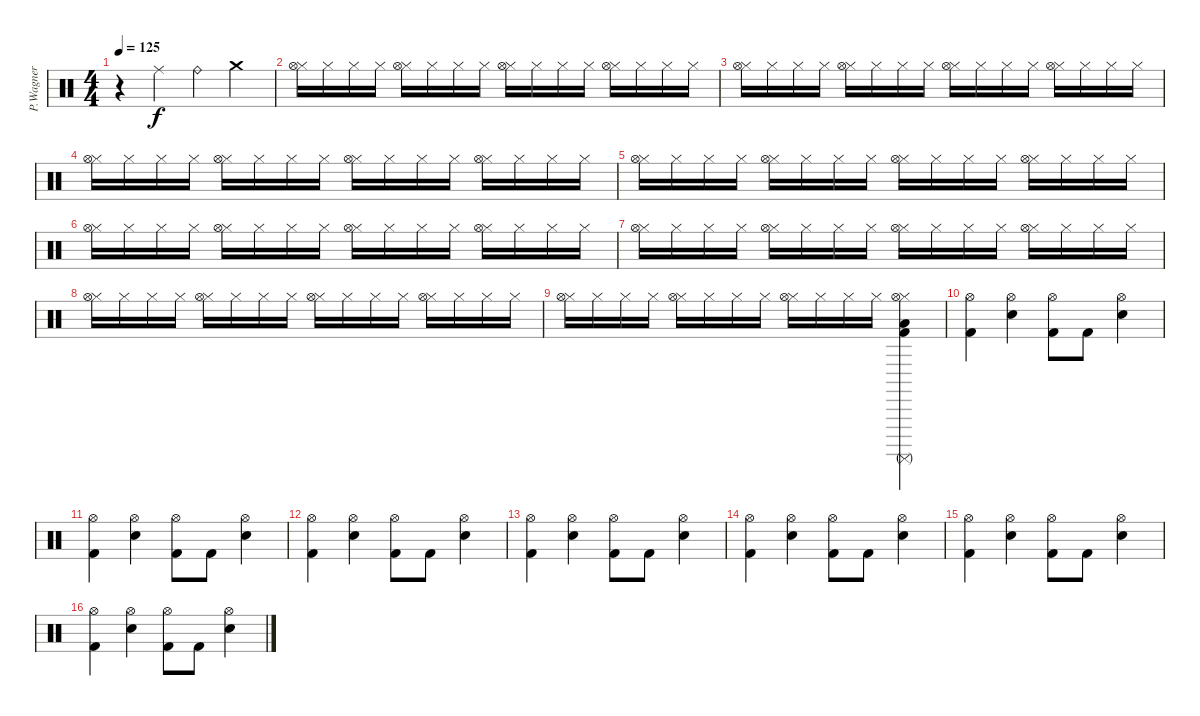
\track ("P.Wagner" "P.Wagner") {instrument percussion}
\staff {score}
\articulation defaults
\ts (4 4)
\tempo 125
\clef neutral
\ks c
r.4{dy f} "Ride (middle)".4 "Ride (bell)".4 "Crash medium (hit)".4 |
("Hi-Hat (closed)" "Hi-Hat (open)").16 "Hi-Hat (closed)".16 "Hi-Hat (closed)".16 "Hi-Hat (closed)".16 ("Hi-Hat (closed)" "Hi-Hat (open)").16 "Hi-Hat (closed)".16 "Hi-Hat (closed)".16 "Hi-Hat (closed)".16 ("Hi-Hat (closed)" "Hi-Hat (open)").16 "Hi-Hat (closed)".16 "Hi-Hat (closed)".16 "Hi-Hat (closed)".16 ("Hi-Hat (closed)" "Hi-Hat (open)").16 "Hi-Hat (closed)".16 "Hi-Hat (closed)".16 "Hi-Hat (closed)".16 |
("Hi-Hat (closed)" "Hi-Hat (open)").16 "Hi-Hat (closed)".16 "Hi-Hat (closed)".16 "Hi-Hat (closed)".16 ("Hi-Hat (closed)" "Hi-Hat (open)").16 "Hi-Hat (closed)".16 "Hi-Hat (closed)".16 "Hi-Hat (closed)".16 ("Hi-Hat (closed)" "Hi-Hat (open)").16 "Hi-Hat (closed)".16 "Hi-Hat (closed)".16 "Hi-Hat (closed)".16 ("Hi-Hat (closed)" "Hi-Hat (open)").16 "Hi-Hat (closed)".16 "Hi-Hat (closed)".16 "Hi-Hat (closed)".16 |
("Hi-Hat (closed)" "Hi-Hat (open)").16 "Hi-Hat (closed)".16 "Hi-Hat (closed)".16 "Hi-Hat (closed)".16 ("Hi-Hat (closed)" "Hi-Hat (open)").16 "Hi-Hat (closed)".16 "Hi-Hat (closed)".16 "Hi-Hat (closed)".16 ("Hi-Hat (closed)" "Hi-Hat (open)").16 "Hi-Hat (closed)".16 "Hi-Hat (closed)".16 "Hi-Hat (closed)".16 ("Hi-Hat (closed)" "Hi-Hat (open)").16 "Hi-Hat (closed)".16 "Hi-Hat (closed)".16 "Hi-Hat (closed)".16 |
("Hi-Hat (closed)" "Hi-Hat (open)").16 "Hi-Hat (closed)".16 "Hi-Hat (closed)".16 "Hi-Hat (closed)".16 ("Hi-Hat (closed)" "Hi-Hat (open)").16 "Hi-Hat (closed)".16 "Hi-Hat (closed)".16 "Hi-Hat (closed)".16 ("Hi-Hat (closed)" "Hi-Hat (open)").16 "Hi-Hat (closed)".16 "Hi-Hat (closed)".16 "Hi-Hat (closed)".16 ("Hi-Hat (closed)" "Hi-Hat (open)").16 "Hi-Hat (closed)".16 "Hi-Hat (closed)".16 "Hi-Hat (closed)".16 |
("Hi-Hat (closed)" "Hi-Hat (open)").16 "Hi-Hat (closed)".16 "Hi-Hat (closed)".16 "Hi-Hat (closed)".16 ("Hi-Hat (closed)" "Hi-Hat (open)").16 "Hi-Hat (closed)".16 "Hi-Hat (closed)".16 "Hi-Hat (closed)".16 ("Hi-Hat (closed)" "Hi-Hat (open)").16 "Hi-Hat (closed)".16 "Hi-Hat (closed)".16 "Hi-Hat (closed)".16 ("Hi-Hat (closed)" "Hi-Hat (open)").16 "Hi-Hat (closed)".16 "Hi-Hat (closed)".16 "Hi-Hat (closed)".16 |
("Hi-Hat (closed)" "Hi-Hat (open)").16 "Hi-Hat (closed)".16 "Hi-Hat (closed)".16 "Hi-Hat (closed)".16 ("Hi-Hat (closed)" "Hi-Hat (open)").16 "Hi-Hat (closed)".16 "Hi-Hat (closed)".16 "Hi-Hat (closed)".16 ("Hi-Hat (closed)" "Hi-Hat (open)").16 "Hi-Hat (closed)".16 "Hi-Hat (closed)".16 "Hi-Hat (closed)".16 ("Hi-Hat (closed)" "Hi-Hat (open)").16 "Hi-Hat (closed)".16 "Hi-Hat (closed)".16 "Hi-Hat (closed)".16 |
("Hi-Hat (closed)" "Hi-Hat (open)").16 "Hi-Hat (closed)".16 "Hi-Hat (closed)".16 "Hi-Hat (closed)".16 ("Hi-Hat (closed)" "Hi-Hat (open)").16 "Hi-Hat (closed)".16 "Hi-Hat (closed)".16 "Hi-Hat (closed)".16 ("Hi-Hat (closed)" "Hi-Hat (open)").16 "Hi-Hat (closed)".16 "Hi-Hat (closed)".16 "Hi-Hat (closed)".16 ("Hi-Hat (closed)" "Hi-Hat (open)").16 "Hi-Hat (closed)".16 "Hi-Hat (closed)".16 "Hi-Hat (closed)".16 |
("Hi-Hat (closed)" "Hi-Hat (open)").16 "Hi-Hat (closed)".16 "Hi-Hat (closed)".16 "Hi-Hat (closed)".16 ("Hi-Hat (closed)" "Hi-Hat (open)").16 "Hi-Hat (closed)".16 "Hi-Hat (closed)".16 "Hi-Hat (closed)".16 ("Hi-Hat (closed)" "Hi-Hat (open)").16 "Hi-Hat (closed)".16 "Hi-Hat (closed)".16 "Hi-Hat (closed)".16 ("Hi-Hat (closed)" "Hi-Hat (open)" "Surdo (mute)" "Low Tom (hit)" "Kick (hit) 2").4 |
("Kick (hit) 2" "Hi-Hat (open)").4 ("Electric Snare (hit)" "Hi-Hat (open)").4 ("Kick (hit) 2" "Hi-Hat (open)").8 "Kick (hit) 2".8 ("Electric Snare (hit)" "Hi-Hat (open)").4 |
("Kick (hit) 2" "Hi-Hat (open)").4 ("Electric Snare (hit)" "Hi-Hat (open)").4 ("Kick (hit) 2" "Hi-Hat (open)").8 "Kick (hit) 2".8 ("Electric Snare (hit)" "Hi-Hat (open)").4 |
("Kick (hit) 2" "Hi-Hat (open)").4 ("Electric Snare (hit)" "Hi-Hat (open)").4 ("Kick (hit) 2" "Hi-Hat (open)").8 "Kick (hit) 2".8 ("Electric Snare (hit)" "Hi-Hat (open)").4 |
("Kick (hit) 2" "Hi-Hat (open)").4 ("Electric Snare (hit)" "Hi-Hat (open)").4 ("Kick (hit) 2" "Hi-Hat (open)").8 "Kick (hit) 2".8 ("Electric Snare (hit)" "Hi-Hat (open)").4 |
("Kick (hit) 2" "Hi-Hat (open)").4 ("Electric Snare (hit)" "Hi-Hat (open)").4 ("Kick (hit) 2" "Hi-Hat (open)").8 "Kick (hit) 2".8 ("Electric Snare (hit)" "Hi-Hat (open)").4 |
("Kick (hit) 2" "Hi-Hat (open)").4 ("Electric Snare (hit)" "Hi-Hat (open)").4 ("Kick (hit) 2" "Hi-Hat (open)").8 "Kick (hit) 2".8 ("Electric Snare (hit)" "Hi-Hat (open)").4 |
("Kick (hit) 2" "Hi-Hat (open)").4 ("Electric Snare (hit)" "Hi-Hat (open)").4 ("Kick (hit) 2" "Hi-Hat (open)").8 "Kick (hit) 2".8 ("Electric Snare (hit)" "Hi-Hat (open)").4
